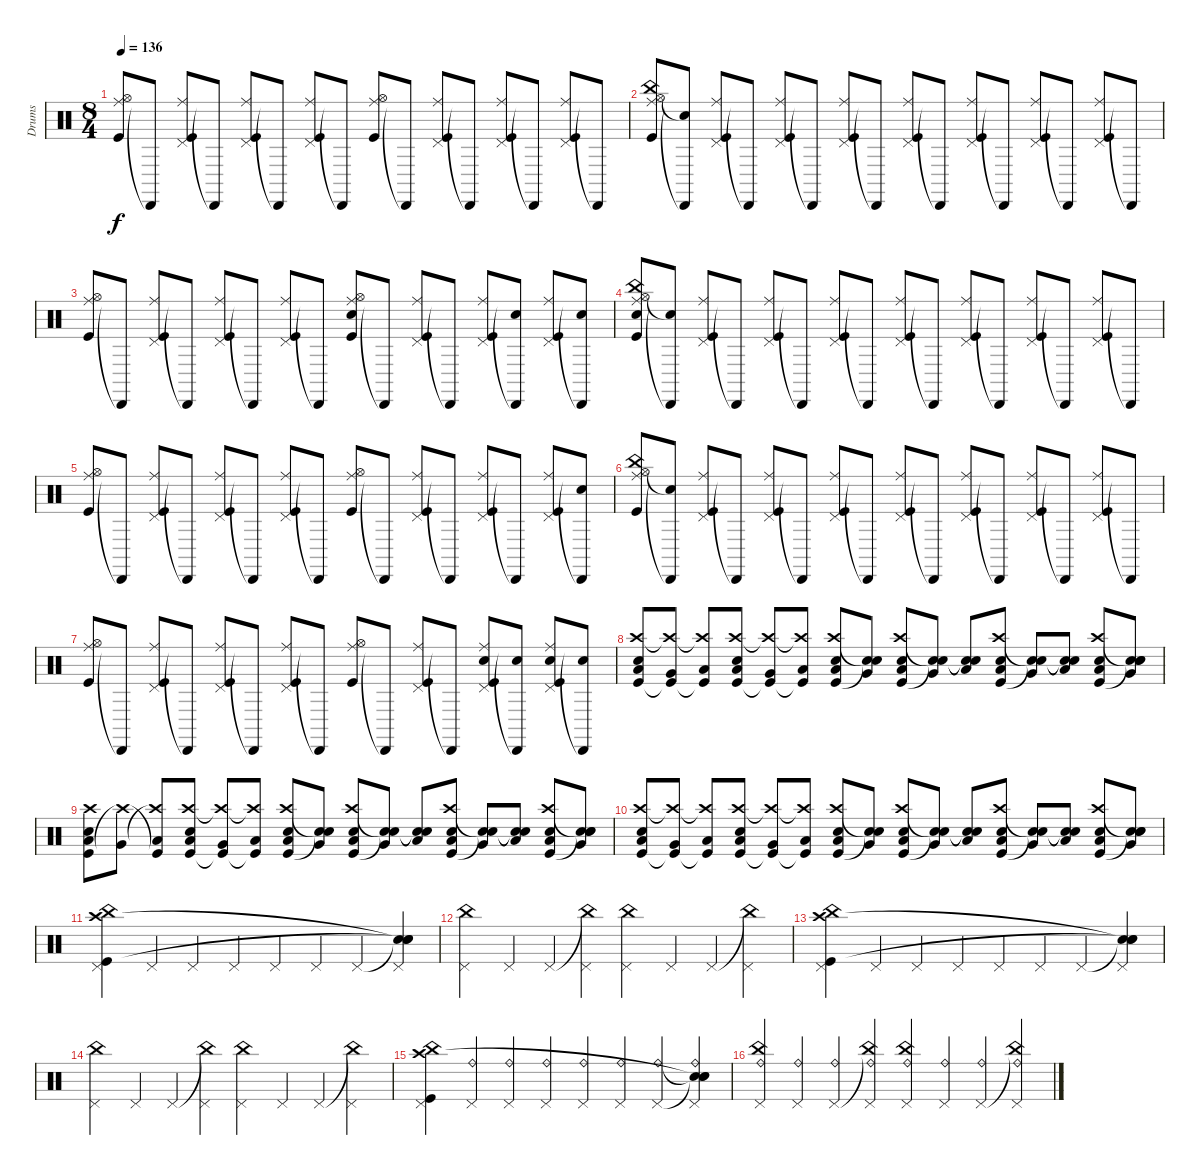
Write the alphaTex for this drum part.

\track ("Drums" "Drums") {instrument percussion}
\staff {score}
\articulation defaults
\ts (8 4)
\tempo 136
\clef neutral
\ks c
("Ride (middle)" "Hi-Hat (open)" "Kick (hit)").8{dy f} "Cabasa (hit)"{t}.8 ("Ride (middle)" "Pedal Hi-Hat (hit)" "Kick (hit)").8 "Cabasa (hit)"{t}.8 ("Ride (middle)" "Pedal Hi-Hat (hit)" "Kick (hit)").8 "Cabasa (hit)"{t}.8 ("Ride (middle)" "Pedal Hi-Hat (hit)" "Kick (hit)").8 "Cabasa (hit)"{t}.8 ("Ride (middle)" "Hi-Hat (open)" "Kick (hit)").8 "Cabasa (hit)"{t}.8 ("Ride (middle)" "Pedal Hi-Hat (hit)" "Kick (hit)").8 "Cabasa (hit)"{t}.8 ("Ride (middle)" "Pedal Hi-Hat (hit)" "Kick (hit)").8 "Cabasa (hit)"{t}.8 ("Ride (middle)" "Pedal Hi-Hat (hit)" "Kick (hit)").8 "Cabasa (hit)"{t}.8 |
("China (hit)" "Ride (middle)" "Hi-Hat (open)" "Kick (hit)").8 ("Snare (hit)"{t} "Cabasa (hit)"{t}).8 ("Ride (middle)" "Pedal Hi-Hat (hit)" "Kick (hit)").8 "Cabasa (hit)"{t}.8 ("Ride (middle)" "Pedal Hi-Hat (hit)" "Kick (hit)").8 "Cabasa (hit)"{t}.8 ("Ride (middle)" "Pedal Hi-Hat (hit)" "Kick (hit)").8 "Cabasa (hit)"{t}.8 ("Ride (middle)" "Pedal Hi-Hat (hit)" "Kick (hit)").8 "Cabasa (hit)"{t}.8 ("Ride (middle)" "Pedal Hi-Hat (hit)" "Kick (hit)").8 "Cabasa (hit)"{t}.8 ("Ride (middle)" "Pedal Hi-Hat (hit)" "Kick (hit)").8 "Cabasa (hit)"{t}.8 ("Ride (middle)" "Pedal Hi-Hat (hit)" "Kick (hit)").8 "Cabasa (hit)"{t}.8 |
("Ride (middle)" "Hi-Hat (open)" "Kick (hit)").8 "Cabasa (hit)"{t}.8 ("Ride (middle)" "Pedal Hi-Hat (hit)" "Kick (hit)").8 "Cabasa (hit)"{t}.8 ("Ride (middle)" "Pedal Hi-Hat (hit)" "Kick (hit)").8 "Cabasa (hit)"{t}.8 ("Ride (middle)" "Pedal Hi-Hat (hit)" "Kick (hit)").8 "Cabasa (hit)"{t}.8 ("Ride (middle)" "Hi-Hat (open)" "Kick (hit)" "Snare (hit) 2").8 "Cabasa (hit)"{t}.8 ("Ride (middle)" "Pedal Hi-Hat (hit)" "Kick (hit)").8 "Cabasa (hit)"{t}.8 ("Ride (middle)" "Pedal Hi-Hat (hit)" "Kick (hit)").8 ("Cabasa (hit)"{t} "Snare (hit) 2").8 ("Ride (middle)" "Pedal Hi-Hat (hit)" "Kick (hit)").8 ("Cabasa (hit)"{t} "Snare (hit) 2").8 |
("China (hit)" "Ride (middle)" "Hi-Hat (open)" "Kick (hit)" "Snare (hit) 2").8 ("Snare (hit)"{t} "Cabasa (hit)"{t}).8 ("Ride (middle)" "Pedal Hi-Hat (hit)" "Kick (hit)").8 "Cabasa (hit)"{t}.8 ("Ride (middle)" "Pedal Hi-Hat (hit)" "Kick (hit)").8 "Cabasa (hit)"{t}.8 ("Ride (middle)" "Pedal Hi-Hat (hit)" "Kick (hit)").8 "Cabasa (hit)"{t}.8 ("Ride (middle)" "Pedal Hi-Hat (hit)" "Kick (hit)").8 "Cabasa (hit)"{t}.8 ("Ride (middle)" "Pedal Hi-Hat (hit)" "Kick (hit)").8 "Cabasa (hit)"{t}.8 ("Ride (middle)" "Pedal Hi-Hat (hit)" "Kick (hit)").8 "Cabasa (hit)"{t}.8 ("Ride (middle)" "Pedal Hi-Hat (hit)" "Kick (hit)").8 "Cabasa (hit)"{t}.8 |
("Ride (middle)" "Hi-Hat (open)" "Kick (hit)").8 "Cabasa (hit)"{t}.8 ("Ride (middle)" "Pedal Hi-Hat (hit)" "Kick (hit)").8 "Cabasa (hit)"{t}.8 ("Ride (middle)" "Pedal Hi-Hat (hit)" "Kick (hit)").8 "Cabasa (hit)"{t}.8 ("Ride (middle)" "Pedal Hi-Hat (hit)" "Kick (hit)").8 "Cabasa (hit)"{t}.8 ("Ride (middle)" "Hi-Hat (open)" "Kick (hit)").8 "Cabasa (hit)"{t}.8 ("Ride (middle)" "Pedal Hi-Hat (hit)" "Kick (hit)").8 "Cabasa (hit)"{t}.8 ("Ride (middle)" "Pedal Hi-Hat (hit)" "Kick (hit)").8 "Cabasa (hit)"{t}.8 ("Ride (middle)" "Pedal Hi-Hat (hit)" "Kick (hit)").8 ("Cabasa (hit)"{t} "Snare (hit) 2").8 |
("China (hit)" "Ride (middle)" "Hi-Hat (open)" "Kick (hit)").8 ("Snare (hit)"{t} "Cabasa (hit)"{t}).8 ("Ride (middle)" "Pedal Hi-Hat (hit)" "Kick (hit)").8 "Cabasa (hit)"{t}.8 ("Ride (middle)" "Pedal Hi-Hat (hit)" "Kick (hit)").8 "Cabasa (hit)"{t}.8 ("Ride (middle)" "Pedal Hi-Hat (hit)" "Kick (hit)").8 "Cabasa (hit)"{t}.8 ("Ride (middle)" "Pedal Hi-Hat (hit)" "Kick (hit)").8 "Cabasa (hit)"{t}.8 ("Ride (middle)" "Pedal Hi-Hat (hit)" "Kick (hit)").8 "Cabasa (hit)"{t}.8 ("Ride (middle)" "Pedal Hi-Hat (hit)" "Kick (hit)").8 "Cabasa (hit)"{t}.8 ("Ride (middle)" "Pedal Hi-Hat (hit)" "Kick (hit)").8 "Cabasa (hit)"{t}.8 |
("Ride (middle)" "Hi-Hat (open)" "Kick (hit)").8 "Cabasa (hit)"{t}.8 ("Ride (middle)" "Pedal Hi-Hat (hit)" "Kick (hit)").8 "Cabasa (hit)"{t}.8 ("Ride (middle)" "Pedal Hi-Hat (hit)" "Kick (hit)").8 "Cabasa (hit)"{t}.8 ("Ride (middle)" "Pedal Hi-Hat (hit)" "Kick (hit)").8 "Cabasa (hit)"{t}.8 ("Ride (middle)" "Hi-Hat (open)" "Kick (hit)").8 "Cabasa (hit)"{t}.8 ("Ride (middle)" "Pedal Hi-Hat (hit)" "Kick (hit)").8 "Cabasa (hit)"{t}.8 ("Ride (middle)" "Pedal Hi-Hat (hit)" "Kick (hit)" "Snare (hit) 2").8 ("Cabasa (hit)"{t} "Snare (hit) 2").8 ("Ride (middle)" "Pedal Hi-Hat (hit)" "Kick (hit)" "Snare (hit) 2").8 ("Cabasa (hit)"{t} "Snare (hit) 2").8 |
("Kick (hit)" "Crash high (hit)" "Low Tom (hit)" "Snare (hit) 2").8 ("Kick (hit)"{t} "Crash high (hit)"{t} "Very Low Tom (hit)").8 ("Kick (hit)"{t} "Crash high (hit)"{t} "Low Floor Tom (hit)").8 ("Kick (hit)" "Crash high (hit)" "Low Tom (hit)" "Snare (hit) 2").8 ("Kick (hit)"{t} "Crash high (hit)"{t} "Very Low Tom (hit)").8 ("Kick (hit)"{t} "Crash high (hit)"{t} "Low Floor Tom (hit)").8 ("Kick (hit)" "Crash high (hit)" "Low Tom (hit)" "Snare (hit) 2").8 ("Snare (hit)"{t} "Snare (hit)"{t} "Very Low Tom (hit)").8 ("Kick (hit)" "Crash high (hit)" "Low Tom (hit)" "Snare (hit) 2").8 ("Snare (hit)"{t} "Snare (hit)"{t} "Very Low Tom (hit)").8 ("Snare (hit)"{t} "Snare (hit)"{t} "Low Floor Tom (hit)").8 ("Kick (hit)" "Crash high (hit)" "Low Tom (hit)" "Snare (hit) 2").8 ("Snare (hit)"{t} "Snare (hit)"{t} "Very Low Tom (hit)").8 ("Snare (hit)"{t} "Snare (hit)"{t} "Low Floor Tom (hit)").8 ("Kick (hit)" "Crash high (hit)" "Low Tom (hit)" "Snare (hit) 2").8 ("Snare (hit)"{t} "Snare (hit)"{t} "Very Low Tom (hit)" "Snare (hit) 2").8 |
("Kick (hit)" "Crash high (hit)" "Low Tom (hit)" "Snare (hit) 2").8 ("Crash high (hit)"{t} "Very Low Tom (hit)").8 ("Kick (hit)"{t} "Crash high (hit)"{t} "Low Floor Tom (hit)").8 ("Kick (hit)" "Crash high (hit)" "Low Tom (hit)" "Snare (hit) 2").8 ("Kick (hit)"{t} "Crash high (hit)"{t} "Very Low Tom (hit)").8 ("Kick (hit)"{t} "Crash high (hit)"{t} "Low Floor Tom (hit)").8 ("Kick (hit)" "Crash high (hit)" "Low Tom (hit)" "Snare (hit) 2").8 ("Snare (hit)"{t} "Snare (hit)"{t} "Very Low Tom (hit)").8 ("Kick (hit)" "Crash high (hit)" "Low Tom (hit)" "Snare (hit) 2").8 ("Snare (hit)"{t} "Snare (hit)"{t} "Very Low Tom (hit)").8 ("Snare (hit)"{t} "Snare (hit)"{t} "Low Floor Tom (hit)").8 ("Kick (hit)" "Crash high (hit)" "Low Tom (hit)" "Snare (hit) 2").8 ("Snare (hit)"{t} "Snare (hit)"{t} "Very Low Tom (hit)").8 ("Snare (hit)"{t} "Snare (hit)"{t} "Low Floor Tom (hit)").8 ("Kick (hit)" "Crash high (hit)" "Low Tom (hit)" "Snare (hit) 2").8 ("Snare (hit)"{t} "Snare (hit)"{t} "Very Low Tom (hit)" "Snare (hit) 2").8 |
("Kick (hit)" "Crash high (hit)" "Low Tom (hit)" "Snare (hit) 2").8 ("Kick (hit)"{t} "Crash high (hit)"{t} "Very Low Tom (hit)").8 ("Kick (hit)"{t} "Crash high (hit)"{t} "Low Floor Tom (hit)").8 ("Kick (hit)" "Crash high (hit)" "Low Tom (hit)" "Snare (hit) 2").8 ("Kick (hit)"{t} "Crash high (hit)"{t} "Very Low Tom (hit)").8 ("Kick (hit)"{t} "Crash high (hit)"{t} "Low Floor Tom (hit)").8 ("Kick (hit)" "Crash high (hit)" "Low Tom (hit)" "Snare (hit) 2").8 ("Snare (hit)"{t} "Snare (hit)"{t} "Very Low Tom (hit)").8 ("Kick (hit)" "Crash high (hit)" "Low Tom (hit)" "Snare (hit) 2").8 ("Snare (hit)"{t} "Snare (hit)"{t} "Very Low Tom (hit)").8 ("Snare (hit)"{t} "Snare (hit)"{t} "Low Floor Tom (hit)").8 ("Kick (hit)" "Crash high (hit)" "Low Tom (hit)" "Snare (hit) 2").8 ("Snare (hit)"{t} "Snare (hit)"{t} "Very Low Tom (hit)").8 ("Snare (hit)"{t} "Snare (hit)"{t} "Low Floor Tom (hit)").8 ("Kick (hit)" "Crash high (hit)" "Low Tom (hit)" "Snare (hit) 2").8 ("Snare (hit)"{t} "Snare (hit)"{t} "Very Low Tom (hit)" "Snare (hit) 2").8 |
("China (hit)" "Kick (hit)" "Crash high (hit)" "Pedal Hi-Hat (hit)").4 "Pedal Hi-Hat (hit)".4 "Pedal Hi-Hat (hit)".4 "Pedal Hi-Hat (hit)".4 "Pedal Hi-Hat (hit)".4 "Pedal Hi-Hat (hit)".4 "Pedal Hi-Hat (hit)".4 ("Snare (hit)"{t} "Snare (hit)"{t} "Snare (hit)"{t} "Pedal Hi-Hat (hit)").4 |
("China (hit)" "Pedal Hi-Hat (hit)").4 "Pedal Hi-Hat (hit)".4 "Pedal Hi-Hat (hit)".4 ("China (hit)"{t} "Pedal Hi-Hat (hit)").4 ("China (hit)" "Pedal Hi-Hat (hit)").4 "Pedal Hi-Hat (hit)".4 "Pedal Hi-Hat (hit)".4 ("China (hit)"{t} "Pedal Hi-Hat (hit)").4 |
("China (hit)" "Kick (hit)" "Crash high (hit)" "Pedal Hi-Hat (hit)").4 "Pedal Hi-Hat (hit)".4 "Pedal Hi-Hat (hit)".4 "Pedal Hi-Hat (hit)".4 "Pedal Hi-Hat (hit)".4 "Pedal Hi-Hat (hit)".4 "Pedal Hi-Hat (hit)".4 ("Snare (hit)"{t} "Snare (hit)"{t} "Snare (hit)"{t} "Pedal Hi-Hat (hit)").4 |
("China (hit)" "Pedal Hi-Hat (hit)").4 "Pedal Hi-Hat (hit)".4 "Pedal Hi-Hat (hit)".4 ("China (hit)"{t} "Pedal Hi-Hat (hit)").4 ("China (hit)" "Pedal Hi-Hat (hit)").4 "Pedal Hi-Hat (hit)".4 "Pedal Hi-Hat (hit)".4 ("China (hit)"{t} "Pedal Hi-Hat (hit)").4 |
("China (hit)" "Kick (hit)" "Crash high (hit)" "Pedal Hi-Hat (hit)").4 ("Pedal Hi-Hat (hit)" "Ride (bell)").4 ("Pedal Hi-Hat (hit)" "Ride (bell)").4 ("Pedal Hi-Hat (hit)" "Ride (bell)").4 ("Pedal Hi-Hat (hit)" "Ride (bell)").4 ("Pedal Hi-Hat (hit)" "Ride (bell)").4 ("Pedal Hi-Hat (hit)" "Ride (bell)").4 ("Snare (hit)"{t} "Snare (hit)"{t} "Snare (hit)"{t} "Pedal Hi-Hat (hit)" "Ride (bell)").4 |
("China (hit)" "Pedal Hi-Hat (hit)" "Ride (bell)").4 ("Pedal Hi-Hat (hit)" "Ride (bell)").4 ("Pedal Hi-Hat (hit)" "Ride (bell)").4 ("China (hit)"{t} "Pedal Hi-Hat (hit)" "Ride (bell)").4 ("China (hit)" "Pedal Hi-Hat (hit)" "Ride (bell)").4 ("Pedal Hi-Hat (hit)" "Ride (bell)").4 ("Pedal Hi-Hat (hit)" "Ride (bell)").4 ("China (hit)"{t} "Pedal Hi-Hat (hit)" "Ride (bell)").4
